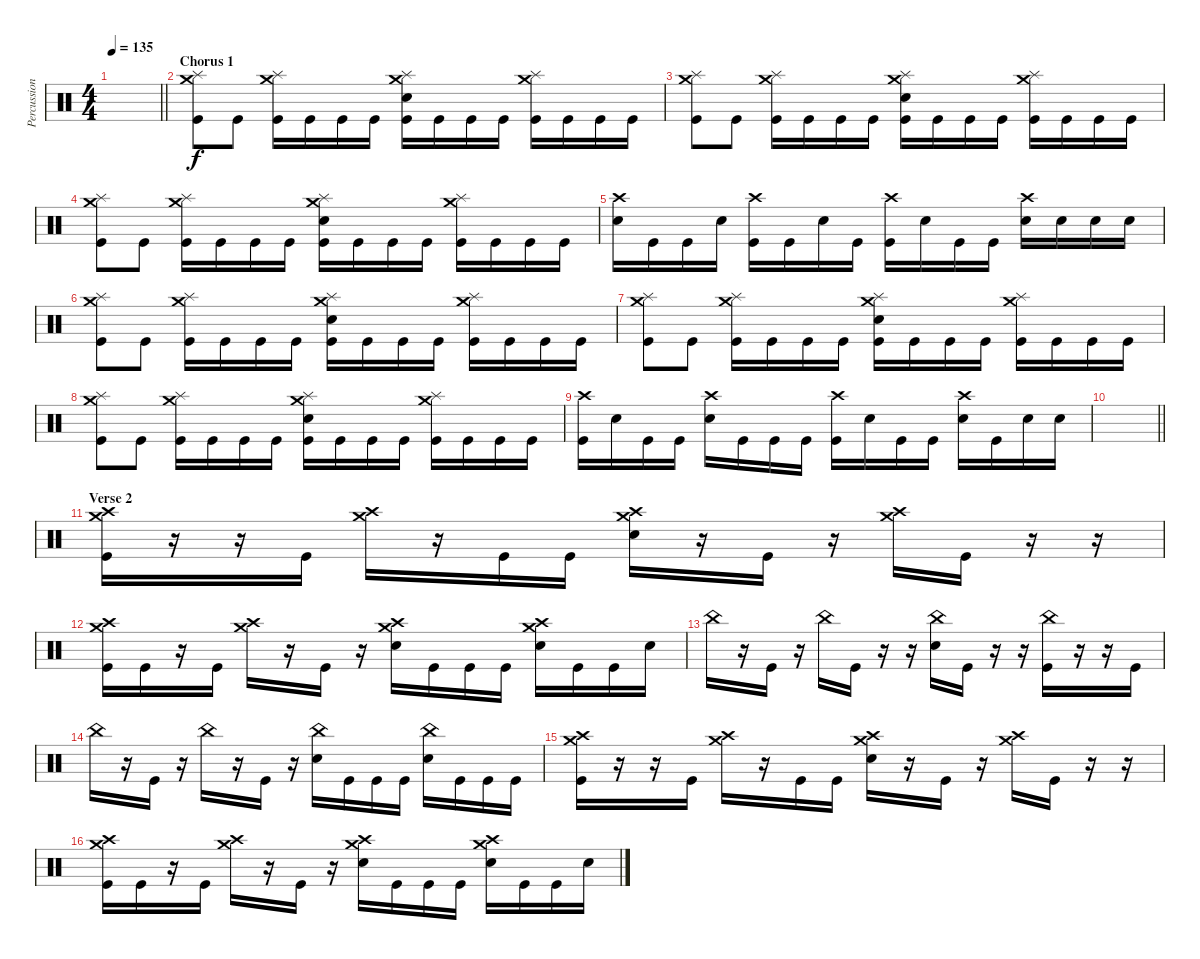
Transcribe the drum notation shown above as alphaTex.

\track ("Percussion (Approx.)" "Percussion") {instrument percussion}
\staff {score}
\articulation defaults
\ts (4 4)
\tempo 135
\clef neutral
\barLineRight lightlight
\ks c
|
\section ("" "Chorus 1")
("Crash medium (hit)" "Splash (hit)" "Kick (hit)").8 "Kick (hit)".8 ("Crash medium (hit)" "Splash (hit)" "Kick (hit)").16 "Kick (hit)".16 "Kick (hit)".16 "Kick (hit)".16 ("Crash medium (hit)" "Splash (hit)" "Electric Snare (hit)" "Kick (hit)").16 "Kick (hit)".16 "Kick (hit)".16 "Kick (hit)".16 ("Crash medium (hit)" "Splash (hit)" "Kick (hit)").16 "Kick (hit)".16 "Kick (hit)".16 "Kick (hit)".16 |
("Crash medium (hit)" "Splash (hit)" "Kick (hit)").8 "Kick (hit)".8 ("Crash medium (hit)" "Splash (hit)" "Kick (hit)").16 "Kick (hit)".16 "Kick (hit)".16 "Kick (hit)".16 ("Crash medium (hit)" "Splash (hit)" "Electric Snare (hit)" "Kick (hit)").16 "Kick (hit)".16 "Kick (hit)".16 "Kick (hit)".16 ("Crash medium (hit)" "Splash (hit)" "Kick (hit)").16 "Kick (hit)".16 "Kick (hit)".16 "Kick (hit)".16 |
("Crash medium (hit)" "Splash (hit)" "Kick (hit)").8 "Kick (hit)".8 ("Crash medium (hit)" "Splash (hit)" "Kick (hit)").16 "Kick (hit)".16 "Kick (hit)".16 "Kick (hit)".16 ("Crash medium (hit)" "Splash (hit)" "Electric Snare (hit)" "Kick (hit)").16 "Kick (hit)".16 "Kick (hit)".16 "Kick (hit)".16 ("Crash medium (hit)" "Splash (hit)" "Kick (hit)").16 "Kick (hit)".16 "Kick (hit)".16 "Kick (hit)".16 |
("Crash high (hit)" "Electric Snare (hit)").16 "Kick (hit)".16 "Kick (hit)".16 "Electric Snare (hit)".16 ("Crash high (hit)" "Kick (hit)").16 "Kick (hit)".16 "Electric Snare (hit)".16 "Kick (hit)".16 ("Crash high (hit)" "Kick (hit)").16 "Electric Snare (hit)".16 "Kick (hit)".16 "Kick (hit)".16 ("Crash high (hit)" "Electric Snare (hit)").16 "Electric Snare (hit)".16 "Electric Snare (hit)".16 "Electric Snare (hit)".16 |
("Crash medium (hit)" "Splash (hit)" "Kick (hit)").8 "Kick (hit)".8 ("Crash medium (hit)" "Splash (hit)" "Kick (hit)").16 "Kick (hit)".16 "Kick (hit)".16 "Kick (hit)".16 ("Crash medium (hit)" "Splash (hit)" "Electric Snare (hit)" "Kick (hit)").16 "Kick (hit)".16 "Kick (hit)".16 "Kick (hit)".16 ("Crash medium (hit)" "Splash (hit)" "Kick (hit)").16 "Kick (hit)".16 "Kick (hit)".16 "Kick (hit)".16 |
("Crash medium (hit)" "Splash (hit)" "Kick (hit)").8 "Kick (hit)".8 ("Crash medium (hit)" "Splash (hit)" "Kick (hit)").16 "Kick (hit)".16 "Kick (hit)".16 "Kick (hit)".16 ("Crash medium (hit)" "Splash (hit)" "Electric Snare (hit)" "Kick (hit)").16 "Kick (hit)".16 "Kick (hit)".16 "Kick (hit)".16 ("Crash medium (hit)" "Splash (hit)" "Kick (hit)").16 "Kick (hit)".16 "Kick (hit)".16 "Kick (hit)".16 |
("Crash medium (hit)" "Splash (hit)" "Kick (hit)").8 "Kick (hit)".8 ("Crash medium (hit)" "Splash (hit)" "Kick (hit)").16 "Kick (hit)".16 "Kick (hit)".16 "Kick (hit)".16 ("Crash medium (hit)" "Splash (hit)" "Electric Snare (hit)" "Kick (hit)").16 "Kick (hit)".16 "Kick (hit)".16 "Kick (hit)".16 ("Crash medium (hit)" "Splash (hit)" "Kick (hit)").16 "Kick (hit)".16 "Kick (hit)".16 "Kick (hit)".16 |
("Crash high (hit)" "Kick (hit)").16 "Electric Snare (hit)".16 "Kick (hit)".16 "Kick (hit)".16 ("Crash high (hit)" "Electric Snare (hit)").16 "Kick (hit)".16 "Kick (hit)".16 "Kick (hit)".16 ("Crash high (hit)" "Kick (hit)").16 "Electric Snare (hit)".16 "Kick (hit)".16 "Kick (hit)".16 ("Crash high (hit)" "Electric Snare (hit)").16 "Kick (hit)".16 "Electric Snare (hit)".16 "Electric Snare (hit)".16 |
\barLineRight lightlight
|
\section ("" "Verse 2")
("Crash medium (hit)" "Crash high (hit)" "Kick (hit)").16 r.16 r.16 "Kick (hit)".16 ("Crash medium (hit)" "Crash high (hit)").16 r.16 "Kick (hit)".16 "Kick (hit)".16 ("Crash medium (hit)" "Crash high (hit)" "Electric Snare (hit)").16 r.16 "Kick (hit)".16 r.16 ("Crash medium (hit)" "Crash high (hit)").16 "Kick (hit)".16 r.16 r.16 |
("Crash medium (hit)" "Crash high (hit)" "Kick (hit)").16 "Kick (hit)".16 r.16 "Kick (hit)".16 ("Crash medium (hit)" "Crash high (hit)").16 r.16 "Kick (hit)".16 r.16 ("Crash medium (hit)" "Crash high (hit)" "Electric Snare (hit)").16 "Kick (hit)".16 "Kick (hit)".16 "Kick (hit)".16 ("Crash medium (hit)" "Crash high (hit)" "Electric Snare (hit)").16 "Kick (hit)".16 "Kick (hit)".16 "Electric Snare (hit)".16 |
"China (hit)".16 r.16 "Kick (hit)".16 r.16 "China (hit)".16 "Kick (hit)".16 r.16 r.16 ("China (hit)" "Electric Snare (hit)").16 "Kick (hit)".16 r.16 r.16 ("China (hit)" "Kick (hit)").16 r.16 r.16 "Kick (hit)".16 |
"China (hit)".16 r.16 "Kick (hit)".16 r.16 "China (hit)".16 r.16 "Kick (hit)".16 r.16 ("China (hit)" "Electric Snare (hit)").16 "Kick (hit)".16 "Kick (hit)".16 "Kick (hit)".16 ("China (hit)" "Electric Snare (hit)").16 "Kick (hit)".16 "Kick (hit)".16 "Kick (hit)".16 |
("Crash medium (hit)" "Crash high (hit)" "Kick (hit)").16 r.16 r.16 "Kick (hit)".16 ("Crash medium (hit)" "Crash high (hit)").16 r.16 "Kick (hit)".16 "Kick (hit)".16 ("Crash medium (hit)" "Crash high (hit)" "Electric Snare (hit)").16 r.16 "Kick (hit)".16 r.16 ("Crash medium (hit)" "Crash high (hit)").16 "Kick (hit)".16 r.16 r.16 |
("Crash medium (hit)" "Crash high (hit)" "Kick (hit)").16 "Kick (hit)".16 r.16 "Kick (hit)".16 ("Crash medium (hit)" "Crash high (hit)").16 r.16 "Kick (hit)".16 r.16 ("Crash medium (hit)" "Crash high (hit)" "Electric Snare (hit)").16 "Kick (hit)".16 "Kick (hit)".16 "Kick (hit)".16 ("Crash medium (hit)" "Crash high (hit)" "Electric Snare (hit)").16 "Kick (hit)".16 "Kick (hit)".16 "Electric Snare (hit)".16
